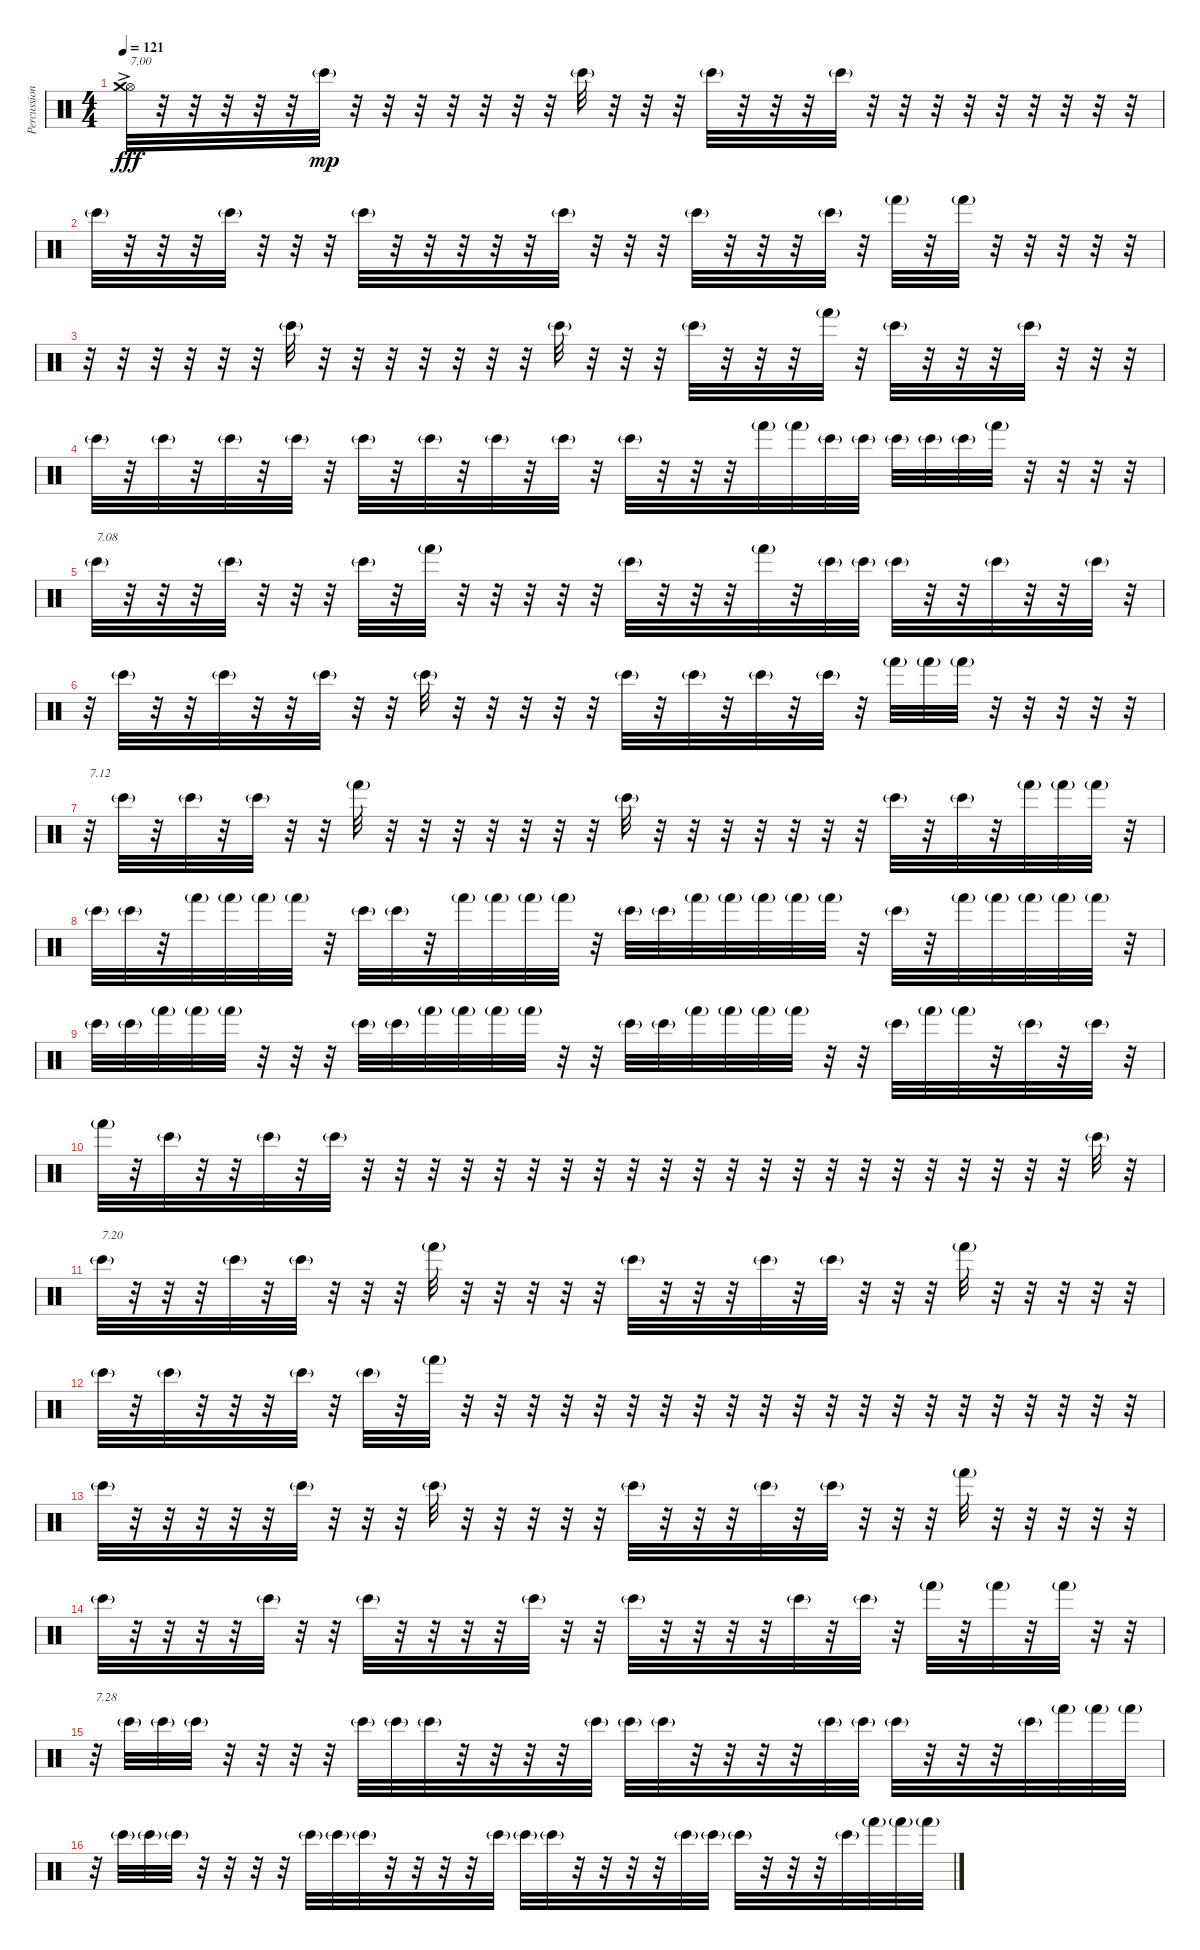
\track ("Percussions" "Percussion") {instrument percussion}
\staff {score}
\articulation defaults
\ts (4 4)
\tempo 121
\clef neutral
\ks c
("Hi-Hat (open)"{ac} "Crash medium (hit)").32{txt "7.00" dy fff} r.32 r.32 r.32 r.32 r.32 "Bongo High (hit)"{g}.32{dy mp} r.32 r.32 r.32 r.32 r.32 r.32 r.32 "Bongo High (hit)"{g}.32 r.32 r.32 r.32 "Bongo High (hit)"{g}.32 r.32 r.32 r.32 "Bongo High (hit)"{g}.32 r.32 r.32 r.32 r.32 r.32 r.32 r.32 r.32 r.32 |
"Bongo High (hit)"{g}.32 r.32 r.32 r.32 "Bongo High (hit)"{g}.32 r.32 r.32 r.32 "Bongo High (hit)"{g}.32 r.32 r.32 r.32 r.32 r.32 "Bongo High (hit)"{g}.32 r.32 r.32 r.32 "Bongo High (hit)"{g}.32 r.32 r.32 r.32 "Bongo High (hit)"{g}.32 r.32 "Hand (hit)"{g}.32 r.32 "Hand (hit)"{g}.32 r.32 r.32 r.32 r.32 r.32 |
r.32 r.32 r.32 r.32 r.32 r.32 "Bongo High (hit)"{g}.32 r.32 r.32 r.32 r.32 r.32 r.32 r.32 "Bongo High (hit)"{g}.32 r.32 r.32 r.32 "Bongo High (hit)"{g}.32 r.32 r.32 r.32 "Hand (hit)"{g}.32 r.32 "Bongo High (hit)"{g}.32 r.32 r.32 r.32 "Bongo High (hit)"{g}.32 r.32 r.32 r.32 |
"Bongo High (hit)"{g}.32 r.32 "Bongo High (hit)"{g}.32 r.32 "Bongo High (hit)"{g}.32 r.32 "Bongo High (hit)"{g}.32 r.32 "Bongo High (hit)"{g}.32 r.32 "Bongo High (hit)"{g}.32 r.32 "Bongo High (hit)"{g}.32 r.32 "Bongo High (hit)"{g}.32 r.32 "Bongo High (hit)"{g}.32 r.32 r.32 r.32 "Hand (hit)"{g}.32 "Hand (hit)"{g}.32 "Bongo High (hit)"{g}.32 "Bongo High (hit)"{g}.32 "Bongo High (hit)"{g}.32 "Bongo High (hit)"{g}.32 "Bongo High (hit)"{g}.32 "Hand (hit)"{g}.32 r.32 r.32 r.32 r.32 |
"Bongo High (hit)"{g}.32{txt "7.08"} r.32 r.32 r.32 "Bongo High (hit)"{g}.32 r.32 r.32 r.32 "Bongo High (hit)"{g}.32 r.32 "Hand (hit)"{g}.32 r.32 r.32 r.32 r.32 r.32 "Bongo High (hit)"{g}.32 r.32 r.32 r.32 "Hand (hit)"{g}.32 r.32 "Bongo High (hit)"{g}.32 "Bongo High (hit)"{g}.32 "Bongo High (hit)"{g}.32 r.32 r.32 "Bongo High (hit)"{g}.32 r.32 r.32 "Bongo High (hit)"{g}.32 r.32 |
r.32 "Bongo High (hit)"{g}.32 r.32 r.32 "Bongo High (hit)"{g}.32 r.32 r.32 "Bongo High (hit)"{g}.32 r.32 r.32 "Bongo High (hit)"{g}.32 r.32 r.32 r.32 r.32 r.32 "Bongo High (hit)"{g}.32 r.32 "Bongo High (hit)"{g}.32 r.32 "Bongo High (hit)"{g}.32 r.32 "Bongo High (hit)"{g}.32 r.32 "Hand (hit)"{g}.32 "Hand (hit)"{g}.32 "Hand (hit)"{g}.32 r.32 r.32 r.32 r.32 r.32 |
r.32{txt "7.12"} "Bongo High (hit)"{g}.32 r.32 "Bongo High (hit)"{g}.32 r.32 "Bongo High (hit)"{g}.32 r.32 r.32 "Hand (hit)"{g}.32 r.32 r.32 r.32 r.32 r.32 r.32 r.32 "Bongo High (hit)"{g}.32 r.32 r.32 r.32 r.32 r.32 r.32 r.32 "Bongo High (hit)"{g}.32 r.32 "Bongo High (hit)"{g}.32 r.32 "Hand (hit)"{g}.32 "Hand (hit)"{g}.32 "Hand (hit)"{g}.32 r.32 |
"Bongo High (hit)"{g}.32 "Bongo High (hit)"{g}.32 r.32 "Hand (hit)"{g}.32 "Hand (hit)"{g}.32 "Hand (hit)"{g}.32 "Hand (hit)"{g}.32 r.32 "Bongo High (hit)"{g}.32 "Bongo High (hit)"{g}.32 r.32 "Hand (hit)"{g}.32 "Hand (hit)"{g}.32 "Hand (hit)"{g}.32 "Hand (hit)"{g}.32 r.32 "Bongo High (hit)"{g}.32 "Bongo High (hit)"{g}.32 "Hand (hit)"{g}.32 "Hand (hit)"{g}.32 "Hand (hit)"{g}.32 "Hand (hit)"{g}.32 "Hand (hit)"{g}.32 r.32 "Bongo High (hit)"{g}.32 r.32 "Hand (hit)"{g}.32 "Hand (hit)"{g}.32 "Hand (hit)"{g}.32 "Hand (hit)"{g}.32 "Hand (hit)"{g}.32 r.32 |
"Bongo High (hit)"{g}.32 "Bongo High (hit)"{g}.32 "Hand (hit)"{g}.32 "Hand (hit)"{g}.32 "Hand (hit)"{g}.32 r.32 r.32 r.32 "Bongo High (hit)"{g}.32 "Bongo High (hit)"{g}.32 "Hand (hit)"{g}.32 "Hand (hit)"{g}.32 "Hand (hit)"{g}.32 "Hand (hit)"{g}.32 r.32 r.32 "Bongo High (hit)"{g}.32 "Bongo High (hit)"{g}.32 "Hand (hit)"{g}.32 "Hand (hit)"{g}.32 "Hand (hit)"{g}.32 "Hand (hit)"{g}.32 r.32 r.32 "Bongo High (hit)"{g}.32 "Hand (hit)"{g}.32 "Hand (hit)"{g}.32 r.32 "Bongo High (hit)"{g}.32 r.32 "Bongo High (hit)"{g}.32 r.32 |
"Hand (hit)"{g}.32 r.32 "Bongo High (hit)"{g}.32 r.32 r.32 "Bongo High (hit)"{g}.32 r.32 "Bongo High (hit)"{g}.32 r.32 r.32 r.32 r.32 r.32 r.32 r.32 r.32 r.32 r.32 r.32 r.32 r.32 r.32 r.32 r.32 r.32 r.32 r.32 r.32 r.32 r.32 "Bongo High (hit)"{g}.32 r.32 |
"Bongo High (hit)"{g}.32{txt "7.20"} r.32 r.32 r.32 "Bongo High (hit)"{g}.32 r.32 "Bongo High (hit)"{g}.32 r.32 r.32 r.32 "Hand (hit)"{g}.32 r.32 r.32 r.32 r.32 r.32 "Bongo High (hit)"{g}.32 r.32 r.32 r.32 "Bongo High (hit)"{g}.32 r.32 "Bongo High (hit)"{g}.32 r.32 r.32 r.32 "Hand (hit)"{g}.32 r.32 r.32 r.32 r.32 r.32 |
"Bongo High (hit)"{g}.32 r.32 "Bongo High (hit)"{g}.32 r.32 r.32 r.32 "Bongo High (hit)"{g}.32 r.32 "Bongo High (hit)"{g}.32 r.32 "Hand (hit)"{g}.32 r.32 r.32 r.32 r.32 r.32 r.32 r.32 r.32 r.32 r.32 r.32 r.32 r.32 r.32 r.32 r.32 r.32 r.32 r.32 r.32 r.32 |
"Bongo High (hit)"{g}.32 r.32 r.32 r.32 r.32 r.32 "Bongo High (hit)"{g}.32 r.32 r.32 r.32 "Bongo High (hit)"{g}.32 r.32 r.32 r.32 r.32 r.32 "Bongo High (hit)"{g}.32 r.32 r.32 r.32 "Bongo High (hit)"{g}.32 r.32 "Bongo High (hit)"{g}.32 r.32 r.32 r.32 "Hand (hit)"{g}.32 r.32 r.32 r.32 r.32 r.32 |
"Bongo High (hit)"{g}.32 r.32 r.32 r.32 r.32 "Bongo High (hit)"{g}.32 r.32 r.32 "Bongo High (hit)"{g}.32 r.32 r.32 r.32 r.32 "Bongo High (hit)"{g}.32 r.32 r.32 "Bongo High (hit)"{g}.32 r.32 r.32 r.32 r.32 "Bongo High (hit)"{g}.32 r.32 "Bongo High (hit)"{g}.32 r.32 "Hand (hit)"{g}.32 r.32 "Hand (hit)"{g}.32 r.32 "Hand (hit)"{g}.32 r.32 r.32 |
r.32{txt "7.28"} "Bongo High (hit)"{g}.32 "Bongo High (hit)"{g}.32 "Bongo High (hit)"{g}.32 r.32 r.32 r.32 r.32 "Bongo High (hit)"{g}.32 "Bongo High (hit)"{g}.32 "Bongo High (hit)"{g}.32 r.32 r.32 r.32 r.32 "Bongo High (hit)"{g}.32 "Bongo High (hit)"{g}.32 "Bongo High (hit)"{g}.32 r.32 r.32 r.32 r.32 "Bongo High (hit)"{g}.32 "Bongo High (hit)"{g}.32 "Bongo High (hit)"{g}.32 r.32 r.32 r.32 "Bongo High (hit)"{g}.32 "Hand (hit)"{g}.32 "Hand (hit)"{g}.32 "Hand (hit)"{g}.32 |
r.32 "Bongo High (hit)"{g}.32 "Bongo High (hit)"{g}.32 "Bongo High (hit)"{g}.32 r.32 r.32 r.32 r.32 "Bongo High (hit)"{g}.32 "Bongo High (hit)"{g}.32 "Bongo High (hit)"{g}.32 r.32 r.32 r.32 r.32 "Bongo High (hit)"{g}.32 "Bongo High (hit)"{g}.32 "Bongo High (hit)"{g}.32 r.32 r.32 r.32 r.32 "Bongo High (hit)"{g}.32 "Bongo High (hit)"{g}.32 "Bongo High (hit)"{g}.32 r.32 r.32 r.32 "Bongo High (hit)"{g}.32 "Hand (hit)"{g}.32 "Hand (hit)"{g}.32 "Hand (hit)"{g}.32
